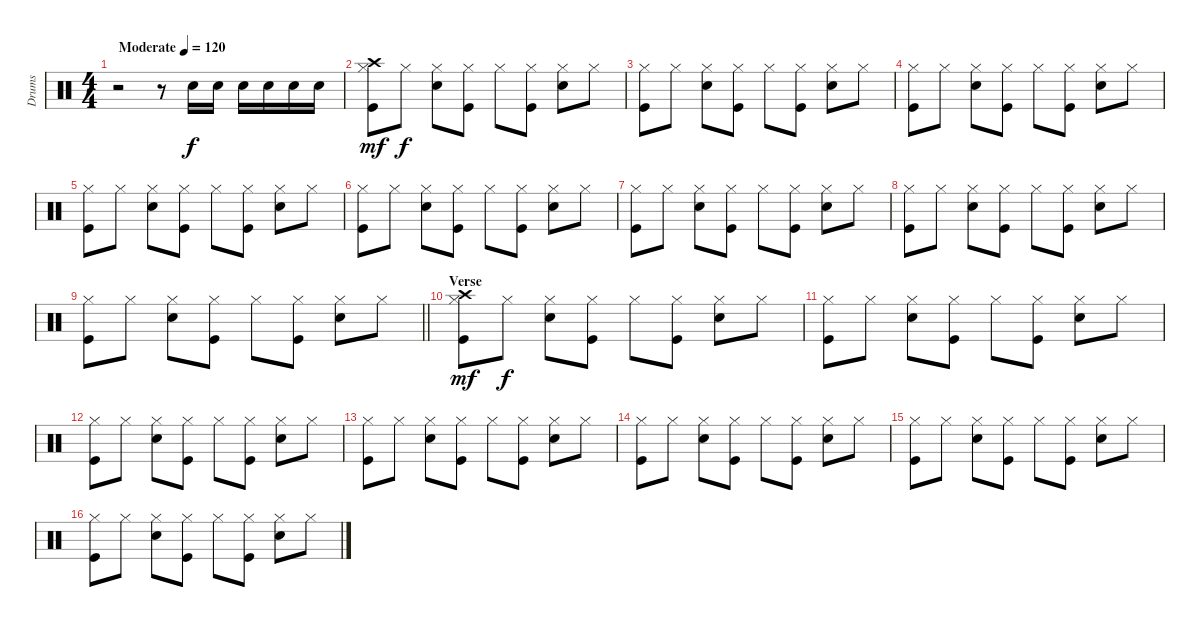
\track ("Drums" "Drums") {instrument percussion}
\staff {score}
\articulation defaults
\ts (4 4)
\tempo (120 "Moderate")
\clef neutral
\ks c
r.2{dy f} r.8{volume 13} "Snare (hit) 2".16 "Snare (hit) 2".16 "Snare (hit) 2".16 "Snare (hit) 2".16 "Snare (hit) 2".16 "Snare (hit) 2".16 |
("Crash high (hit)" "Hi-Hat (closed)" "Kick (hit)").8{dy mf} "Hi-Hat (closed)".8{dy f} ("Hi-Hat (closed)" "Snare (hit) 2").8 ("Hi-Hat (closed)" "Kick (hit)").8 "Hi-Hat (closed)".8 ("Hi-Hat (closed)" "Kick (hit)").8 ("Hi-Hat (closed)" "Snare (hit) 2").8 "Hi-Hat (closed)".8 |
("Hi-Hat (closed)" "Kick (hit)").8 "Hi-Hat (closed)".8 ("Hi-Hat (closed)" "Snare (hit) 2").8 ("Hi-Hat (closed)" "Kick (hit)").8 "Hi-Hat (closed)".8 ("Hi-Hat (closed)" "Kick (hit)").8 ("Hi-Hat (closed)" "Snare (hit) 2").8 "Hi-Hat (closed)".8 |
("Hi-Hat (closed)" "Kick (hit)").8 "Hi-Hat (closed)".8 ("Hi-Hat (closed)" "Snare (hit) 2").8 ("Hi-Hat (closed)" "Kick (hit)").8 "Hi-Hat (closed)".8 ("Hi-Hat (closed)" "Kick (hit)").8 ("Hi-Hat (closed)" "Snare (hit) 2").8 "Hi-Hat (closed)".8 |
("Hi-Hat (closed)" "Kick (hit)").8 "Hi-Hat (closed)".8 ("Hi-Hat (closed)" "Snare (hit) 2").8 ("Hi-Hat (closed)" "Kick (hit)").8 "Hi-Hat (closed)".8 ("Hi-Hat (closed)" "Kick (hit)").8 ("Hi-Hat (closed)" "Snare (hit) 2").8 "Hi-Hat (closed)".8 |
("Hi-Hat (closed)" "Kick (hit)").8 "Hi-Hat (closed)".8 ("Hi-Hat (closed)" "Snare (hit) 2").8 ("Hi-Hat (closed)" "Kick (hit)").8 "Hi-Hat (closed)".8 ("Hi-Hat (closed)" "Kick (hit)").8 ("Hi-Hat (closed)" "Snare (hit) 2").8 "Hi-Hat (closed)".8 |
("Hi-Hat (closed)" "Kick (hit)").8 "Hi-Hat (closed)".8 ("Hi-Hat (closed)" "Snare (hit) 2").8 ("Hi-Hat (closed)" "Kick (hit)").8 "Hi-Hat (closed)".8 ("Hi-Hat (closed)" "Kick (hit)").8 ("Hi-Hat (closed)" "Snare (hit) 2").8 "Hi-Hat (closed)".8 |
("Hi-Hat (closed)" "Kick (hit)").8 "Hi-Hat (closed)".8 ("Hi-Hat (closed)" "Snare (hit) 2").8 ("Hi-Hat (closed)" "Kick (hit)").8 "Hi-Hat (closed)".8 ("Hi-Hat (closed)" "Kick (hit)").8 ("Hi-Hat (closed)" "Snare (hit) 2").8 "Hi-Hat (closed)".8 |
\barLineRight lightlight
("Hi-Hat (closed)" "Kick (hit)").8 "Hi-Hat (closed)".8 ("Hi-Hat (closed)" "Snare (hit) 2").8 ("Hi-Hat (closed)" "Kick (hit)").8 "Hi-Hat (closed)".8 ("Hi-Hat (closed)" "Kick (hit)").8 ("Hi-Hat (closed)" "Snare (hit) 2").8 "Hi-Hat (closed)".8 |
\section ("" "Verse")
("Crash high (hit)" "Hi-Hat (closed)" "Kick (hit)").8{dy mf} "Hi-Hat (closed)".8{dy f} ("Hi-Hat (closed)" "Snare (hit) 2").8 ("Hi-Hat (closed)" "Kick (hit)").8 "Hi-Hat (closed)".8 ("Hi-Hat (closed)" "Kick (hit)").8 ("Hi-Hat (closed)" "Snare (hit) 2").8 "Hi-Hat (closed)".8 |
("Hi-Hat (closed)" "Kick (hit)").8 "Hi-Hat (closed)".8 ("Hi-Hat (closed)" "Snare (hit) 2").8 ("Hi-Hat (closed)" "Kick (hit)").8 "Hi-Hat (closed)".8 ("Hi-Hat (closed)" "Kick (hit)").8 ("Hi-Hat (closed)" "Snare (hit) 2").8 "Hi-Hat (closed)".8 |
("Hi-Hat (closed)" "Kick (hit)").8 "Hi-Hat (closed)".8 ("Hi-Hat (closed)" "Snare (hit) 2").8 ("Hi-Hat (closed)" "Kick (hit)").8 "Hi-Hat (closed)".8 ("Hi-Hat (closed)" "Kick (hit)").8 ("Hi-Hat (closed)" "Snare (hit) 2").8 "Hi-Hat (closed)".8 |
("Hi-Hat (closed)" "Kick (hit)").8 "Hi-Hat (closed)".8 ("Hi-Hat (closed)" "Snare (hit) 2").8 ("Hi-Hat (closed)" "Kick (hit)").8 "Hi-Hat (closed)".8 ("Hi-Hat (closed)" "Kick (hit)").8 ("Hi-Hat (closed)" "Snare (hit) 2").8 "Hi-Hat (closed)".8 |
("Hi-Hat (closed)" "Kick (hit)").8 "Hi-Hat (closed)".8 ("Hi-Hat (closed)" "Snare (hit) 2").8 ("Hi-Hat (closed)" "Kick (hit)").8 "Hi-Hat (closed)".8 ("Hi-Hat (closed)" "Kick (hit)").8 ("Hi-Hat (closed)" "Snare (hit) 2").8 "Hi-Hat (closed)".8 |
("Hi-Hat (closed)" "Kick (hit)").8 "Hi-Hat (closed)".8 ("Hi-Hat (closed)" "Snare (hit) 2").8 ("Hi-Hat (closed)" "Kick (hit)").8 "Hi-Hat (closed)".8 ("Hi-Hat (closed)" "Kick (hit)").8 ("Hi-Hat (closed)" "Snare (hit) 2").8 "Hi-Hat (closed)".8 |
("Hi-Hat (closed)" "Kick (hit)").8 "Hi-Hat (closed)".8 ("Hi-Hat (closed)" "Snare (hit) 2").8 ("Hi-Hat (closed)" "Kick (hit)").8 "Hi-Hat (closed)".8 ("Hi-Hat (closed)" "Kick (hit)").8 ("Hi-Hat (closed)" "Snare (hit) 2").8 "Hi-Hat (closed)".8
